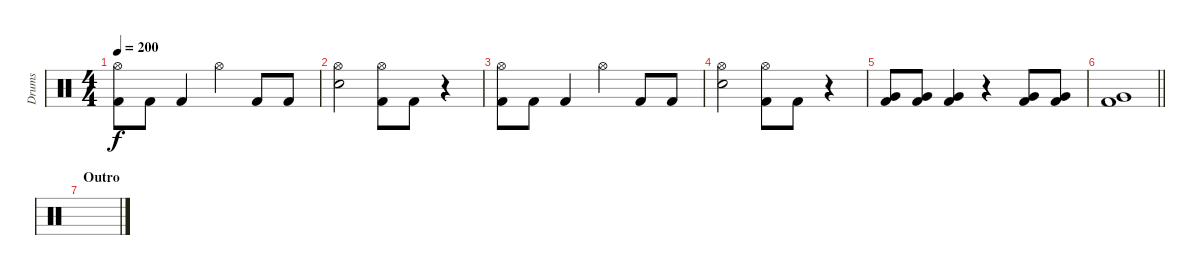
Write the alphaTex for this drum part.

\track ("Drums" "Drums") {instrument percussion}
\staff {score}
\articulation defaults
\ts (4 4)
\tempo 200
\clef neutral
\ks c
("Hi-Hat (open)" "Kick (hit) 2").8{dy f} "Kick (hit) 2".8 "Kick (hit) 2".4 "Hi-Hat (open)".4 "Kick (hit) 2".8 "Kick (hit) 2".8 |
("Hi-Hat (open)" "Snare (hit) 2").2 ("Hi-Hat (open)" "Kick (hit) 2").8 "Kick (hit) 2".8 r.4 |
("Hi-Hat (open)" "Kick (hit) 2").8 "Kick (hit) 2".8 "Kick (hit) 2".4 "Hi-Hat (open)".4 "Kick (hit) 2".8 "Kick (hit) 2".8 |
("Hi-Hat (open)" "Snare (hit) 2").2 ("Hi-Hat (open)" "Kick (hit) 2").8 "Kick (hit) 2".8 r.4 |
("Very Low Tom (hit)" "Kick (hit) 2").8 ("Very Low Tom (hit)" "Kick (hit) 2").8 ("Very Low Tom (hit)" "Kick (hit) 2").4 r.4 ("Very Low Tom (hit)" "Kick (hit) 2").8 ("Very Low Tom (hit)" "Kick (hit) 2").8 |
\barLineRight lightlight
("Very Low Tom (hit)" "Kick (hit) 2").1 |
\section ("" "Outro")
